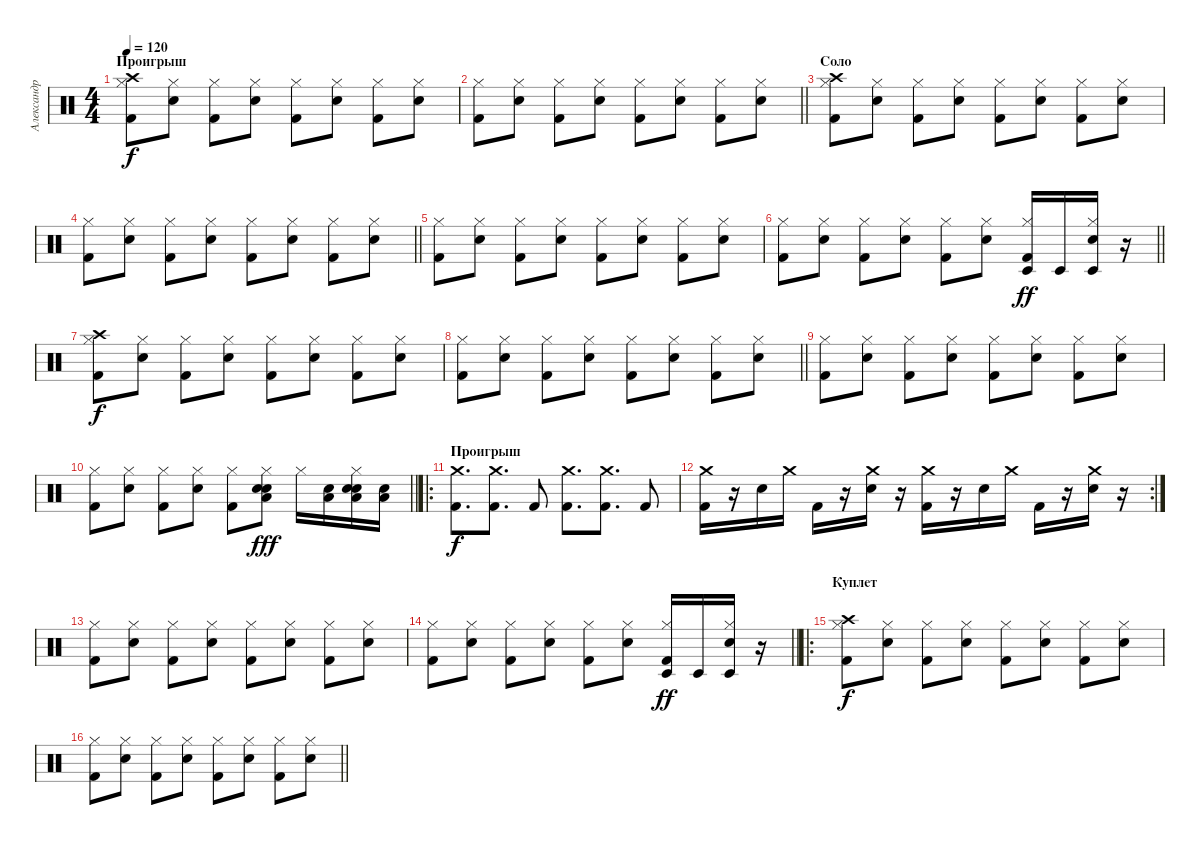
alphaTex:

\track ("Александр Якушев" "Александр ") {instrument percussion}
\staff {score}
\articulation defaults
\ts (4 4)
\section ("" "Проигрыш")
\tempo 120
\clef neutral
\ks c
("Hi-Hat (closed)" "Crash high (hit)" "Kick (hit) 2").8{dy f} ("Hi-Hat (closed)" "Snare (hit) 2").8 ("Hi-Hat (closed)" "Kick (hit) 2").8 ("Hi-Hat (closed)" "Snare (hit) 2").8 ("Hi-Hat (closed)" "Kick (hit) 2").8 ("Hi-Hat (closed)" "Snare (hit) 2").8 ("Hi-Hat (closed)" "Kick (hit) 2").8 ("Hi-Hat (closed)" "Snare (hit) 2").8 |
\barLineRight lightlight
("Hi-Hat (closed)" "Kick (hit) 2").8 ("Hi-Hat (closed)" "Snare (hit) 2").8 ("Hi-Hat (closed)" "Kick (hit) 2").8 ("Hi-Hat (closed)" "Snare (hit) 2").8 ("Hi-Hat (closed)" "Kick (hit) 2").8 ("Hi-Hat (closed)" "Snare (hit) 2").8 ("Hi-Hat (closed)" "Kick (hit) 2").8 ("Hi-Hat (closed)" "Snare (hit) 2").8 |
\section ("" "Соло")
("Hi-Hat (closed)" "Crash high (hit)" "Kick (hit) 2").8 ("Hi-Hat (closed)" "Snare (hit) 2").8 ("Hi-Hat (closed)" "Kick (hit) 2").8 ("Hi-Hat (closed)" "Snare (hit) 2").8 ("Hi-Hat (closed)" "Kick (hit) 2").8 ("Hi-Hat (closed)" "Snare (hit) 2").8 ("Hi-Hat (closed)" "Kick (hit) 2").8 ("Hi-Hat (closed)" "Snare (hit) 2").8 |
\barLineRight lightlight
("Hi-Hat (closed)" "Kick (hit) 2").8 ("Hi-Hat (closed)" "Snare (hit) 2").8 ("Hi-Hat (closed)" "Kick (hit) 2").8 ("Hi-Hat (closed)" "Snare (hit) 2").8 ("Hi-Hat (closed)" "Kick (hit) 2").8 ("Hi-Hat (closed)" "Snare (hit) 2").8 ("Hi-Hat (closed)" "Kick (hit) 2").8 ("Hi-Hat (closed)" "Snare (hit) 2").8 |
("Hi-Hat (closed)" "Kick (hit) 2").8 ("Hi-Hat (closed)" "Snare (hit) 2").8 ("Hi-Hat (closed)" "Kick (hit) 2").8 ("Hi-Hat (closed)" "Snare (hit) 2").8 ("Hi-Hat (closed)" "Kick (hit) 2").8 ("Hi-Hat (closed)" "Snare (hit) 2").8 ("Hi-Hat (closed)" "Kick (hit) 2").8 ("Hi-Hat (closed)" "Snare (hit) 2").8 |
\barLineRight lightlight
("Hi-Hat (closed)" "Kick (hit) 2").8 ("Hi-Hat (closed)" "Snare (hit) 2").8 ("Hi-Hat (closed)" "Kick (hit) 2").8 ("Hi-Hat (closed)" "Snare (hit) 2").8 ("Hi-Hat (closed)" "Kick (hit) 2").8 ("Hi-Hat (closed)" "Snare (hit) 2").8 ("Hi-Hat (closed)" "Timbale low (hit)" "Kick (hit) 2").16{dy ff} "Timbale low (hit)".16 ("Hi-Hat (closed)" "Timbale low (hit)" "Snare (hit) 2").16 r.16 |
("Hi-Hat (closed)" "Crash high (hit)" "Kick (hit) 2").8{dy f} ("Hi-Hat (closed)" "Snare (hit) 2").8 ("Hi-Hat (closed)" "Kick (hit) 2").8 ("Hi-Hat (closed)" "Snare (hit) 2").8 ("Hi-Hat (closed)" "Kick (hit) 2").8 ("Hi-Hat (closed)" "Snare (hit) 2").8 ("Hi-Hat (closed)" "Kick (hit) 2").8 ("Hi-Hat (closed)" "Snare (hit) 2").8 |
\barLineRight lightlight
("Hi-Hat (closed)" "Kick (hit) 2").8 ("Hi-Hat (closed)" "Snare (hit) 2").8 ("Hi-Hat (closed)" "Kick (hit) 2").8 ("Hi-Hat (closed)" "Snare (hit) 2").8 ("Hi-Hat (closed)" "Kick (hit) 2").8 ("Hi-Hat (closed)" "Snare (hit) 2").8 ("Hi-Hat (closed)" "Kick (hit) 2").8 ("Hi-Hat (closed)" "Snare (hit) 2").8 |
("Hi-Hat (closed)" "Kick (hit) 2").8 ("Hi-Hat (closed)" "Snare (hit) 2").8 ("Hi-Hat (closed)" "Kick (hit) 2").8 ("Hi-Hat (closed)" "Snare (hit) 2").8 ("Hi-Hat (closed)" "Kick (hit) 2").8 ("Hi-Hat (closed)" "Snare (hit) 2").8 ("Hi-Hat (closed)" "Kick (hit) 2").8 ("Hi-Hat (closed)" "Snare (hit) 2").8 |
\barLineRight lightlight
("Hi-Hat (closed)" "Kick (hit) 2").8 ("Hi-Hat (closed)" "Snare (hit) 2").8 ("Hi-Hat (closed)" "Kick (hit) 2").8 ("Hi-Hat (closed)" "Snare (hit) 2").8 ("Hi-Hat (closed)" "Kick (hit) 2").8 ("Hi-Hat (closed)" "Low Floor Tom (hit)" "Electric Snare (hit)" "Snare (hit) 2").8{dy fff} "Hi-Hat (closed)".16 ("Low Floor Tom (hit)" "Electric Snare (hit)").16 ("Hi-Hat (closed)" "Low Floor Tom (hit)" "Electric Snare (hit)" "Snare (hit) 2").16 ("Low Floor Tom (hit)" "Electric Snare (hit)").16 |
\ro
\section ("" "Проигрыш")
("Crash medium (hit)" "Kick (hit) 2").8{d dy f} ("Crash medium (hit)" "Kick (hit) 2").8{d} "Kick (hit) 2".8 ("Crash medium (hit)" "Kick (hit) 2").8{d} ("Crash medium (hit)" "Kick (hit) 2").8{d} "Kick (hit) 2".8 |
\rc 2
("Crash medium (hit)" "Kick (hit) 2").16 r.16 "Snare (hit) 2".16 "Crash medium (hit)".16 "Kick (hit) 2".16 r.16 ("Crash medium (hit)" "Snare (hit) 2").16 r.16 ("Crash medium (hit)" "Kick (hit) 2").16 r.16 "Snare (hit) 2".16 "Crash medium (hit)".16 "Kick (hit) 2".16 r.16 ("Crash medium (hit)" "Snare (hit) 2").16 r.16 |
("Hi-Hat (closed)" "Kick (hit) 2").8 ("Hi-Hat (closed)" "Snare (hit) 2").8 ("Hi-Hat (closed)" "Kick (hit) 2").8 ("Hi-Hat (closed)" "Snare (hit) 2").8 ("Hi-Hat (closed)" "Kick (hit) 2").8 ("Hi-Hat (closed)" "Snare (hit) 2").8 ("Hi-Hat (closed)" "Kick (hit) 2").8 ("Hi-Hat (closed)" "Snare (hit) 2").8 |
\barLineRight lightlight
("Hi-Hat (closed)" "Kick (hit) 2").8 ("Hi-Hat (closed)" "Snare (hit) 2").8 ("Hi-Hat (closed)" "Kick (hit) 2").8 ("Hi-Hat (closed)" "Snare (hit) 2").8 ("Hi-Hat (closed)" "Kick (hit) 2").8 ("Hi-Hat (closed)" "Snare (hit) 2").8 ("Hi-Hat (closed)" "Timbale low (hit)" "Kick (hit) 2").16{dy ff} "Timbale low (hit)".16 ("Hi-Hat (closed)" "Timbale low (hit)" "Snare (hit) 2").16 r.16 |
\ro
\section ("" "Куплет")
("Hi-Hat (closed)" "Crash high (hit)" "Kick (hit) 2").8{dy f} ("Hi-Hat (closed)" "Snare (hit) 2").8 ("Hi-Hat (closed)" "Kick (hit) 2").8 ("Hi-Hat (closed)" "Snare (hit) 2").8 ("Hi-Hat (closed)" "Kick (hit) 2").8 ("Hi-Hat (closed)" "Snare (hit) 2").8 ("Hi-Hat (closed)" "Kick (hit) 2").8 ("Hi-Hat (closed)" "Snare (hit) 2").8 |
\barLineRight lightlight
("Hi-Hat (closed)" "Kick (hit) 2").8 ("Hi-Hat (closed)" "Snare (hit) 2").8 ("Hi-Hat (closed)" "Kick (hit) 2").8 ("Hi-Hat (closed)" "Snare (hit) 2").8 ("Hi-Hat (closed)" "Kick (hit) 2").8 ("Hi-Hat (closed)" "Snare (hit) 2").8 ("Hi-Hat (closed)" "Kick (hit) 2").8 ("Hi-Hat (closed)" "Snare (hit) 2").8
